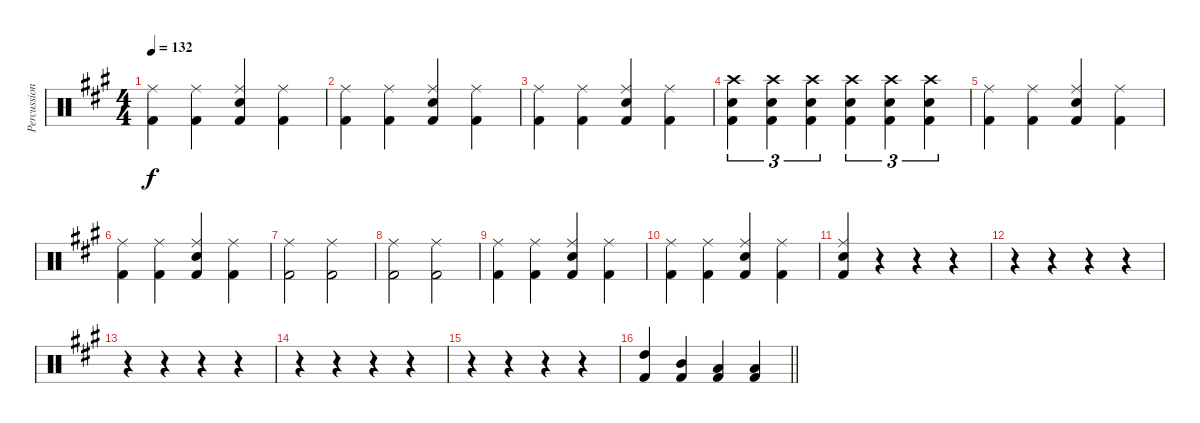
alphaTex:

\track ("Percussion" "Percussion") {instrument percussion}
\staff {score}
\articulation defaults
\ts (4 4)
\tempo 132
\clef neutral
\ks a
("Kick (hit) 2" "Ride (middle)").4{dy f} ("Kick (hit) 2" "Ride (middle)").4 ("Kick (hit) 2" "Electric Snare (hit)" "Ride (middle)").4 ("Kick (hit) 2" "Ride (middle)").4 |
("Kick (hit) 2" "Ride (middle)").4 ("Kick (hit) 2" "Ride (middle)").4 ("Kick (hit) 2" "Electric Snare (hit)" "Ride (middle)").4 ("Kick (hit) 2" "Ride (middle)").4 |
("Kick (hit) 2" "Ride (middle)").4 ("Kick (hit) 2" "Ride (middle)").4 ("Kick (hit) 2" "Electric Snare (hit)" "Ride (middle)").4 ("Kick (hit) 2" "Ride (middle)").4 |
("Kick (hit) 2" "Electric Snare (hit)" "Crash high (hit)").4{tu (3 2)} ("Kick (hit) 2" "Electric Snare (hit)" "Crash high (hit)").4{tu (3 2)} ("Kick (hit) 2" "Electric Snare (hit)" "Crash high (hit)").4{tu (3 2)} ("Kick (hit) 2" "Electric Snare (hit)" "Crash high (hit)").4{tu (3 2)} ("Kick (hit) 2" "Electric Snare (hit)" "Crash high (hit)").4{tu (3 2)} ("Kick (hit) 2" "Electric Snare (hit)" "Crash high (hit)").4{tu (3 2)} |
("Kick (hit) 2" "Ride (middle)").4 ("Kick (hit) 2" "Ride (middle)").4 ("Kick (hit) 2" "Electric Snare (hit)" "Ride (middle)").4 ("Kick (hit) 2" "Ride (middle)").4 |
("Kick (hit) 2" "Ride (middle)").4 ("Kick (hit) 2" "Ride (middle)").4 ("Kick (hit) 2" "Electric Snare (hit)" "Ride (middle)").4 ("Kick (hit) 2" "Ride (middle)").4 |
("Kick (hit) 2" "Ride (middle)").2 ("Kick (hit) 2" "Ride (middle)").2 |
("Kick (hit) 2" "Ride (middle)").2 ("Kick (hit) 2" "Ride (middle)").2 |
("Kick (hit) 2" "Ride (middle)").4 ("Kick (hit) 2" "Ride (middle)").4 ("Kick (hit) 2" "Electric Snare (hit)" "Ride (middle)").4 ("Kick (hit) 2" "Ride (middle)").4 |
("Kick (hit) 2" "Ride (middle)").4 ("Kick (hit) 2" "Ride (middle)").4 ("Kick (hit) 2" "Electric Snare (hit)" "Ride (middle)").4 ("Kick (hit) 2" "Ride (middle)").4 |
("Kick (hit) 2" "Electric Snare (hit)" "Ride (middle)").4 r.4 r.4 r.4 |
r.4 r.4 r.4 r.4 |
r.4 r.4 r.4 r.4 |
r.4 r.4 r.4 r.4 |
r.4 r.4 r.4 r.4 |
\barLineRight lightlight
("Kick (hit) 2" "High Tom (hit)").4 ("Kick (hit) 2" "Mid Tom (hit)").4 ("Kick (hit) 2" "Low Tom (hit)").4 ("Kick (hit) 2" "Low Tom (hit)").4
